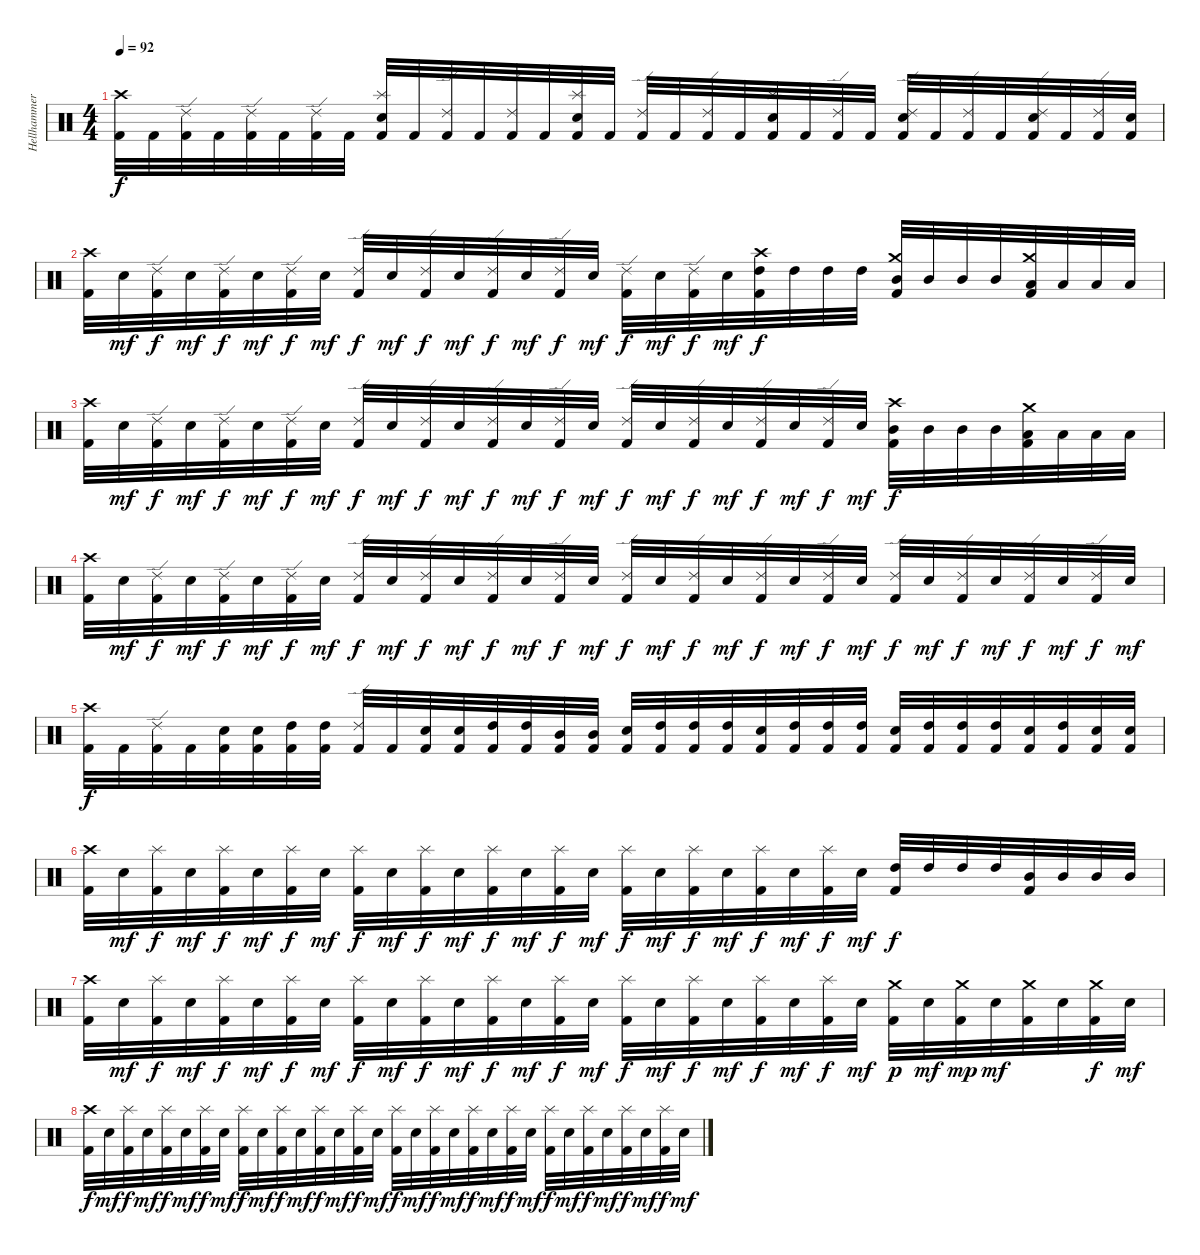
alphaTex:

\track ("Hellhammer" "Hellhammer") {instrument percussion}
\staff {score}
\articulation defaults
\ts (4 4)
\tempo 92
\clef neutral
\ks c
("Crash high (hit)" "Kick (hit) 2").32{dy f} "Kick (hit) 2".32 ("Ride (edge) 2" "Kick (hit) 2").32 "Kick (hit) 2".32 ("Ride (edge) 2" "Kick (hit) 2").32 "Kick (hit) 2".32 ("Ride (edge) 2" "Kick (hit) 2").32 "Kick (hit) 2".32 ("Splash (hit)" "Electric Snare (hit)" "Kick (hit) 2").32 "Kick (hit) 2".32 ("Ride (edge) 2" "Kick (hit) 2").32 "Kick (hit) 2".32 ("Ride (edge) 2" "Kick (hit) 2").32 "Kick (hit) 2".32 ("Splash (hit)" "Electric Snare (hit)" "Kick (hit) 2").32 "Kick (hit) 2".32 ("Ride (edge) 2" "Kick (hit) 2").32 "Kick (hit) 2".32 ("Ride (edge) 2" "Kick (hit) 2").32 "Kick (hit) 2".32 ("Splash (hit)" "Electric Snare (hit)" "Kick (hit) 2").32 "Kick (hit) 2".32 ("Ride (edge) 2" "Kick (hit) 2").32 "Kick (hit) 2".32 ("Ride (edge) 2" "Electric Snare (hit)" "Kick (hit) 2").32 "Kick (hit) 2".32 ("Ride (edge) 2" "Kick (hit) 2").32 "Kick (hit) 2".32 ("Ride (edge) 2" "Electric Snare (hit)" "Kick (hit) 2").32 "Kick (hit) 2".32 ("Ride (edge) 2" "Kick (hit) 2").32 ("Electric Snare (hit)" "Kick (hit) 2").32 |
("Crash high (hit)" "Kick (hit) 2").32 "Electric Snare (hit)".32{dy mf} ("Ride (edge) 2" "Kick (hit) 2").32{dy f} "Electric Snare (hit)".32{dy mf} ("Ride (edge) 2" "Kick (hit) 2").32{dy f} "Electric Snare (hit)".32{dy mf} ("Ride (edge) 2" "Kick (hit) 2").32{dy f} "Electric Snare (hit)".32{dy mf} ("Ride (edge) 2" "Kick (hit) 2").32{dy f} "Electric Snare (hit)".32{dy mf} ("Ride (edge) 2" "Kick (hit) 2").32{dy f} "Electric Snare (hit)".32{dy mf} ("Ride (edge) 2" "Kick (hit) 2").32{dy f} "Electric Snare (hit)".32{dy mf} ("Ride (edge) 2" "Kick (hit) 2").32{dy f} "Electric Snare (hit)".32{dy mf} ("Ride (edge) 2" "Kick (hit) 2").32{dy f} "Electric Snare (hit)".32{dy mf} ("Ride (edge) 2" "Kick (hit) 2").32{dy f} "Electric Snare (hit)".32{dy mf} ("Crash high (hit)" "High Tom (hit)" "Kick (hit) 2").32{dy f} "High Tom (hit)".32 "High Tom (hit)".32 "High Tom (hit)".32 ("Crash medium (hit)" "Mid Tom (hit)" "Kick (hit) 2").32 "Mid Tom (hit)".32 "Mid Tom (hit)".32 "Mid Tom (hit)".32 ("Crash medium (hit)" "Low Tom (hit)" "Kick (hit) 2").32 "Low Tom (hit)".32 "Low Tom (hit)".32 "Low Tom (hit)".32 |
("Crash high (hit)" "Kick (hit) 2").32 "Electric Snare (hit)".32{dy mf} ("Ride (edge) 2" "Kick (hit) 2").32{dy f} "Electric Snare (hit)".32{dy mf} ("Ride (edge) 2" "Kick (hit) 2").32{dy f} "Electric Snare (hit)".32{dy mf} ("Ride (edge) 2" "Kick (hit) 2").32{dy f} "Electric Snare (hit)".32{dy mf} ("Ride (edge) 2" "Kick (hit) 2").32{dy f} "Electric Snare (hit)".32{dy mf} ("Ride (edge) 2" "Kick (hit) 2").32{dy f} "Electric Snare (hit)".32{dy mf} ("Ride (edge) 2" "Kick (hit) 2").32{dy f} "Electric Snare (hit)".32{dy mf} ("Ride (edge) 2" "Kick (hit) 2").32{dy f} "Electric Snare (hit)".32{dy mf} ("Ride (edge) 2" "Kick (hit) 2").32{dy f} "Electric Snare (hit)".32{dy mf} ("Ride (edge) 2" "Kick (hit) 2").32{dy f} "Electric Snare (hit)".32{dy mf} ("Ride (edge) 2" "Kick (hit) 2").32{dy f} "Electric Snare (hit)".32{dy mf} ("Ride (edge) 2" "Kick (hit) 2").32{dy f} "Electric Snare (hit)".32{dy mf} ("Crash high (hit)" "Mid Tom (hit)" "Kick (hit) 2").32{dy f} "Mid Tom (hit)".32 "Mid Tom (hit)".32 "Mid Tom (hit)".32 ("Crash medium (hit)" "Low Tom (hit)" "Kick (hit) 2").32 "Low Tom (hit)".32 "Low Tom (hit)".32 "Low Tom (hit)".32 |
("Crash high (hit)" "Kick (hit) 2").32 "Electric Snare (hit)".32{dy mf} ("Ride (edge) 2" "Kick (hit) 2").32{dy f} "Electric Snare (hit)".32{dy mf} ("Ride (edge) 2" "Kick (hit) 2").32{dy f} "Electric Snare (hit)".32{dy mf} ("Ride (edge) 2" "Kick (hit) 2").32{dy f} "Electric Snare (hit)".32{dy mf} ("Ride (edge) 2" "Kick (hit) 2").32{dy f} "Electric Snare (hit)".32{dy mf} ("Ride (edge) 2" "Kick (hit) 2").32{dy f} "Electric Snare (hit)".32{dy mf} ("Ride (edge) 2" "Kick (hit) 2").32{dy f} "Electric Snare (hit)".32{dy mf} ("Ride (edge) 2" "Kick (hit) 2").32{dy f} "Electric Snare (hit)".32{dy mf} ("Ride (edge) 2" "Kick (hit) 2").32{dy f} "Electric Snare (hit)".32{dy mf} ("Ride (edge) 2" "Kick (hit) 2").32{dy f} "Electric Snare (hit)".32{dy mf} ("Ride (edge) 2" "Kick (hit) 2").32{dy f} "Electric Snare (hit)".32{dy mf} ("Ride (edge) 2" "Kick (hit) 2").32{dy f} "Electric Snare (hit)".32{dy mf} ("Ride (edge) 2" "Kick (hit) 2").32{dy f} "Electric Snare (hit)".32{dy mf} ("Ride (edge) 2" "Kick (hit) 2").32{dy f} "Electric Snare (hit)".32{dy mf} ("Ride (edge) 2" "Kick (hit) 2").32{dy f} "Electric Snare (hit)".32{dy mf} ("Ride (edge) 2" "Kick (hit) 2").32{dy f} "Electric Snare (hit)".32{dy mf} |
("Crash high (hit)" "Kick (hit) 2").32{dy f} "Kick (hit) 2".32 ("Ride (edge) 2" "Kick (hit) 2").32 "Kick (hit) 2".32 ("Electric Snare (hit)" "Kick (hit) 2").32 ("Electric Snare (hit)" "Kick (hit) 2").32 ("High Tom (hit)" "Kick (hit) 2").32 ("High Tom (hit)" "Kick (hit) 2").32 ("Ride (edge) 2" "Kick (hit) 2").32 "Kick (hit) 2".32 ("Electric Snare (hit)" "Kick (hit) 2").32 ("Electric Snare (hit)" "Kick (hit) 2").32 ("High Tom (hit)" "Kick (hit) 2").32 ("High Tom (hit)" "Kick (hit) 2").32 ("Mid Tom (hit)" "Kick (hit) 2").32 ("Mid Tom (hit)" "Kick (hit) 2").32 ("Electric Snare (hit)" "Kick (hit) 2").32 ("High Tom (hit)" "Kick (hit) 2").32 ("High Tom (hit)" "Kick (hit) 2").32 ("High Tom (hit)" "Kick (hit) 2").32 ("Electric Snare (hit)" "Kick (hit) 2").32 ("High Tom (hit)" "Kick (hit) 2").32 ("High Tom (hit)" "Kick (hit) 2").32 ("High Tom (hit)" "Kick (hit) 2").32 ("Electric Snare (hit)" "Kick (hit) 2").32 ("High Tom (hit)" "Kick (hit) 2").32 ("High Tom (hit)" "Kick (hit) 2").32 ("High Tom (hit)" "Kick (hit) 2").32 ("Electric Snare (hit)" "Kick (hit) 2").32 ("High Tom (hit)" "Kick (hit) 2").32 ("Electric Snare (hit)" "Kick (hit) 2").32 ("Electric Snare (hit)" "Kick (hit) 2").32 |
("Crash high (hit)" "Kick (hit) 2").32 "Electric Snare (hit)".32{dy mf} ("Splash (hit)" "Kick (hit) 2").32{dy f} "Electric Snare (hit)".32{dy mf} ("Splash (hit)" "Kick (hit) 2").32{dy f} "Electric Snare (hit)".32{dy mf} ("Splash (hit)" "Kick (hit) 2").32{dy f} "Electric Snare (hit)".32{dy mf} ("Splash (hit)" "Kick (hit) 2").32{dy f} "Electric Snare (hit)".32{dy mf} ("Splash (hit)" "Kick (hit) 2").32{dy f} "Electric Snare (hit)".32{dy mf} ("Splash (hit)" "Kick (hit) 2").32{dy f} "Electric Snare (hit)".32{dy mf} ("Splash (hit)" "Kick (hit) 2").32{dy f} "Electric Snare (hit)".32{dy mf} ("Splash (hit)" "Kick (hit) 2").32{dy f} "Electric Snare (hit)".32{dy mf} ("Splash (hit)" "Kick (hit) 2").32{dy f} "Electric Snare (hit)".32{dy mf} ("Splash (hit)" "Kick (hit) 2").32{dy f} "Electric Snare (hit)".32{dy mf} ("Splash (hit)" "Kick (hit) 2").32{dy f} "Electric Snare (hit)".32{dy mf} ("High Tom (hit)" "Kick (hit) 2").32{dy f} "High Tom (hit)".32 "High Tom (hit)".32 "High Tom (hit)".32 ("Mid Tom (hit)" "Kick (hit) 2").32 "Mid Tom (hit)".32 "Mid Tom (hit)".32 "Mid Tom (hit)".32 |
("Crash high (hit)" "Kick (hit) 2").32 "Electric Snare (hit)".32{dy mf} ("Splash (hit)" "Kick (hit) 2").32{dy f} "Electric Snare (hit)".32{dy mf} ("Splash (hit)" "Kick (hit) 2").32{dy f} "Electric Snare (hit)".32{dy mf} ("Splash (hit)" "Kick (hit) 2").32{dy f} "Electric Snare (hit)".32{dy mf} ("Splash (hit)" "Kick (hit) 2").32{dy f} "Electric Snare (hit)".32{dy mf} ("Splash (hit)" "Kick (hit) 2").32{dy f} "Electric Snare (hit)".32{dy mf} ("Splash (hit)" "Kick (hit) 2").32{dy f} "Electric Snare (hit)".32{dy mf} ("Splash (hit)" "Kick (hit) 2").32{dy f} "Electric Snare (hit)".32{dy mf} ("Splash (hit)" "Kick (hit) 2").32{dy f} "Electric Snare (hit)".32{dy mf} ("Splash (hit)" "Kick (hit) 2").32{dy f} "Electric Snare (hit)".32{dy mf} ("Splash (hit)" "Kick (hit) 2").32{dy f} "Electric Snare (hit)".32{dy mf} ("Splash (hit)" "Kick (hit) 2").32{dy f} "Electric Snare (hit)".32{dy mf} ("Crash medium (hit)" "Kick (hit) 2").32{dy p} "Electric Snare (hit)".32{dy mf} ("Crash medium (hit)" "Kick (hit) 2").32{dy mp} "Electric Snare (hit)".32{dy mf} ("Crash medium (hit)" "Kick (hit) 2").32 "Electric Snare (hit)".32 ("Crash medium (hit)" "Kick (hit) 2").32{dy f} "Electric Snare (hit)".32{dy mf} |
("Crash high (hit)" "Kick (hit) 2").32{dy f} "Electric Snare (hit)".32{dy mf} ("Splash (hit)" "Kick (hit) 2").32{dy f} "Electric Snare (hit)".32{dy mf} ("Splash (hit)" "Kick (hit) 2").32{dy f} "Electric Snare (hit)".32{dy mf} ("Splash (hit)" "Kick (hit) 2").32{dy f} "Electric Snare (hit)".32{dy mf} ("Splash (hit)" "Kick (hit) 2").32{dy f} "Electric Snare (hit)".32{dy mf} ("Splash (hit)" "Kick (hit) 2").32{dy f} "Electric Snare (hit)".32{dy mf} ("Splash (hit)" "Kick (hit) 2").32{dy f} "Electric Snare (hit)".32{dy mf} ("Splash (hit)" "Kick (hit) 2").32{dy f} "Electric Snare (hit)".32{dy mf} ("Splash (hit)" "Kick (hit) 2").32{dy f} "Electric Snare (hit)".32{dy mf} ("Splash (hit)" "Kick (hit) 2").32{dy f} "Electric Snare (hit)".32{dy mf} ("Splash (hit)" "Kick (hit) 2").32{dy f} "Electric Snare (hit)".32{dy mf} ("Splash (hit)" "Kick (hit) 2").32{dy f} "Electric Snare (hit)".32{dy mf} ("Splash (hit)" "Kick (hit) 2").32{dy f} "Electric Snare (hit)".32{dy mf} ("Splash (hit)" "Kick (hit) 2").32{dy f} "Electric Snare (hit)".32{dy mf} ("Splash (hit)" "Kick (hit) 2").32{dy f} "Electric Snare (hit)".32{dy mf} ("Splash (hit)" "Kick (hit) 2").32{dy f} "Electric Snare (hit)".32{dy mf}
